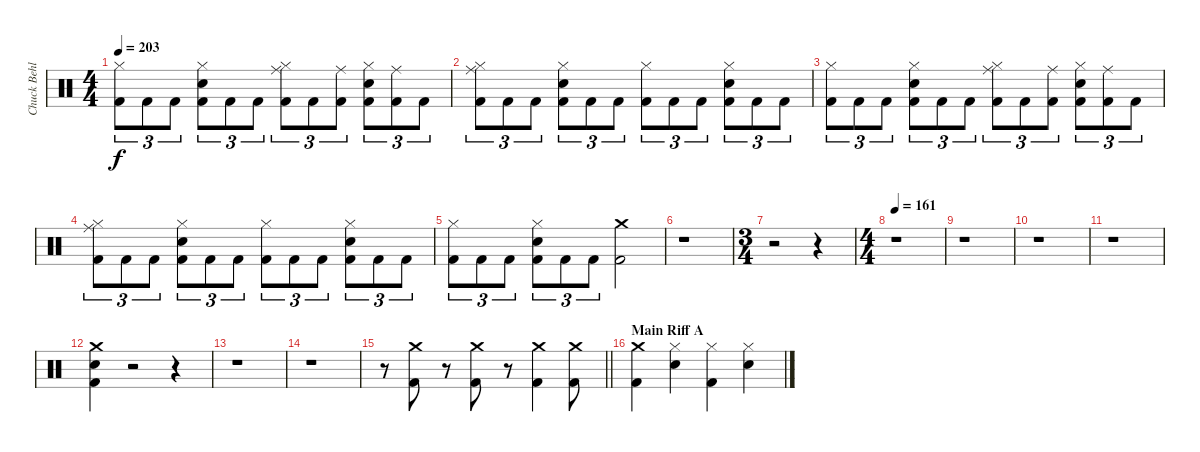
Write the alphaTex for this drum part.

\track ("Chuck Behler" "Chuck Behl") {instrument percussion}
\staff {score}
\articulation defaults
\ts (4 4)
\tempo 203
\clef neutral
\ks c
("Hi-Hat (closed)" "Kick (hit) 2").8{tu (3 2) dy f} "Kick (hit) 2".8{tu (3 2)} "Kick (hit) 2".8{tu (3 2)} ("Hi-Hat (closed)" "Snare (hit) 2" "Kick (hit) 2").8{tu (3 2)} "Kick (hit) 2".8{tu (3 2)} "Kick (hit) 2".8{tu (3 2)} ("Ride (middle)" "Hi-Hat (closed)" "Kick (hit) 2").8{tu (3 2)} "Kick (hit) 2".8{tu (3 2)} ("Ride (middle)" "Kick (hit) 2").8{tu (3 2)} ("Hi-Hat (closed)" "Snare (hit) 2" "Kick (hit) 2").8{tu (3 2)} ("Ride (middle)" "Kick (hit) 2").8{tu (3 2)} "Kick (hit) 2".8{tu (3 2)} |
("Ride (middle)" "Hi-Hat (closed)" "Kick (hit) 2").8{tu (3 2)} "Kick (hit) 2".8{tu (3 2)} "Kick (hit) 2".8{tu (3 2)} ("Hi-Hat (closed)" "Snare (hit) 2" "Kick (hit) 2").8{tu (3 2)} "Kick (hit) 2".8{tu (3 2)} "Kick (hit) 2".8{tu (3 2)} ("Hi-Hat (closed)" "Kick (hit) 2").8{tu (3 2)} "Kick (hit) 2".8{tu (3 2)} "Kick (hit) 2".8{tu (3 2)} ("Hi-Hat (closed)" "Snare (hit) 2" "Kick (hit) 2").8{tu (3 2)} "Kick (hit) 2".8{tu (3 2)} "Kick (hit) 2".8{tu (3 2)} |
("Hi-Hat (closed)" "Kick (hit) 2").8{tu (3 2)} "Kick (hit) 2".8{tu (3 2)} "Kick (hit) 2".8{tu (3 2)} ("Hi-Hat (closed)" "Snare (hit) 2" "Kick (hit) 2").8{tu (3 2)} "Kick (hit) 2".8{tu (3 2)} "Kick (hit) 2".8{tu (3 2)} ("Ride (middle)" "Hi-Hat (closed)" "Kick (hit) 2").8{tu (3 2)} "Kick (hit) 2".8{tu (3 2)} ("Ride (middle)" "Kick (hit) 2").8{tu (3 2)} ("Hi-Hat (closed)" "Snare (hit) 2" "Kick (hit) 2").8{tu (3 2)} ("Ride (middle)" "Kick (hit) 2").8{tu (3 2)} "Kick (hit) 2".8{tu (3 2)} |
("Ride (middle)" "Hi-Hat (closed)" "Kick (hit) 2").8{tu (3 2)} "Kick (hit) 2".8{tu (3 2)} "Kick (hit) 2".8{tu (3 2)} ("Hi-Hat (closed)" "Snare (hit) 2" "Kick (hit) 2").8{tu (3 2)} "Kick (hit) 2".8{tu (3 2)} "Kick (hit) 2".8{tu (3 2)} ("Hi-Hat (closed)" "Kick (hit) 2").8{tu (3 2)} "Kick (hit) 2".8{tu (3 2)} "Kick (hit) 2".8{tu (3 2)} ("Hi-Hat (closed)" "Snare (hit) 2" "Kick (hit) 2").8{tu (3 2)} "Kick (hit) 2".8{tu (3 2)} "Kick (hit) 2".8{tu (3 2)} |
("Hi-Hat (closed)" "Kick (hit) 2").8{tu (3 2)} "Kick (hit) 2".8{tu (3 2)} "Kick (hit) 2".8{tu (3 2)} ("Hi-Hat (closed)" "Snare (hit) 2" "Kick (hit) 2").8{tu (3 2)} "Kick (hit) 2".8{tu (3 2)} "Kick (hit) 2".8{tu (3 2)} ("Crash medium (hit)" "Kick (hit) 2").2 |
r.1 |
\ts (3 4)
r.2 r.4 |
\ts (4 4)
\tempo 161
r.1 |
r.1 |
r.1 |
r.1 |
("Crash medium (hit)" "Snare (hit) 2" "Kick (hit) 2").4{volume 0} r.2 r.4 |
r.1 |
r.1 |
\barLineRight lightlight
r.8{volume 16} ("Crash medium (hit)" "Kick (hit) 2").8 r.8 ("Crash medium (hit)" "Kick (hit) 2").8 r.8 ("Crash medium (hit)" "Kick (hit) 2").4 ("Crash medium (hit)" "Kick (hit) 2").8 |
\section ("" "Main Riff A")
("Crash medium (hit)" "Kick (hit) 2").4 ("Hi-Hat (closed)" "Snare (hit) 2").4 ("Hi-Hat (closed)" "Kick (hit) 2").4 ("Hi-Hat (closed)" "Snare (hit) 2").4
